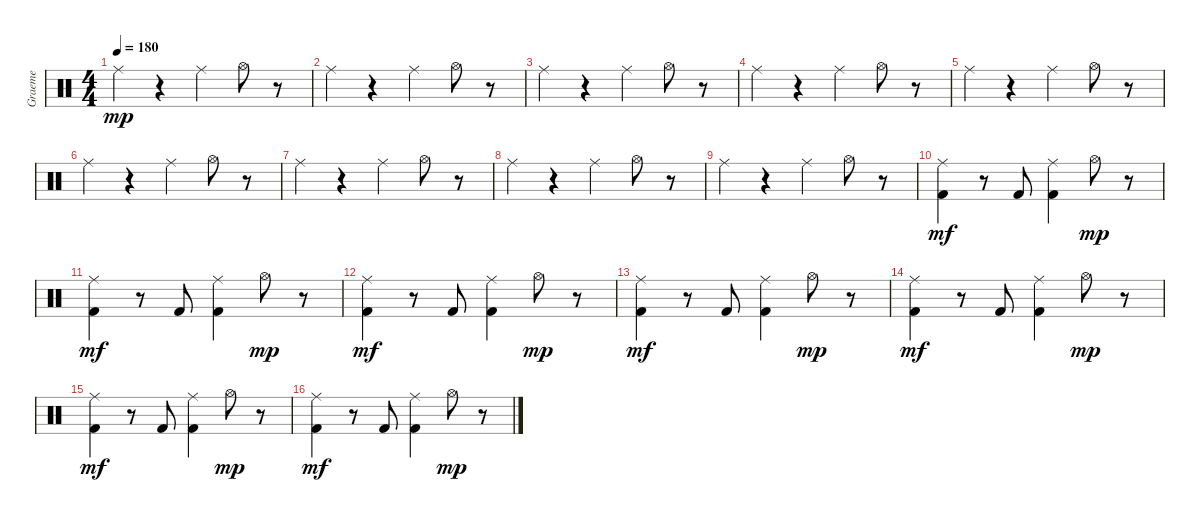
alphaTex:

\track ("Graeme" "Graeme") {instrument percussion}
\staff {score}
\articulation defaults
\ts (4 4)
\tempo 180
\clef neutral
\ks c "Ride (middle)".4{dy mp}
r.4 "Ride (middle)".4 "Hi-Hat (open)".8 r.8 |
"Ride (middle)".4 r.4 "Ride (middle)".4 "Hi-Hat (open)".8 r.8 |
"Ride (middle)".4 r.4 "Ride (middle)".4 "Hi-Hat (open)".8 r.8 |
"Ride (middle)".4 r.4 "Ride (middle)".4 "Hi-Hat (open)".8 r.8 |
"Ride (middle)".4 r.4 "Ride (middle)".4 "Hi-Hat (open)".8 r.8 |
"Ride (middle)".4 r.4 "Ride (middle)".4 "Hi-Hat (open)".8 r.8 |
"Ride (middle)".4 r.4 "Ride (middle)".4 "Hi-Hat (open)".8 r.8 |
"Ride (middle)".4 r.4 "Ride (middle)".4 "Hi-Hat (open)".8 r.8 |
"Ride (middle)".4 r.4 "Ride (middle)".4 "Hi-Hat (open)".8 r.8 |
("Ride (middle)" "Kick (hit) 2").4{dy mf} r.8 "Kick (hit) 2".8 ("Ride (middle)" "Kick (hit) 2").4 "Hi-Hat (open)".8{dy mp} r.8 |
("Ride (middle)" "Kick (hit) 2").4{dy mf} r.8 "Kick (hit) 2".8 ("Ride (middle)" "Kick (hit) 2").4 "Hi-Hat (open)".8{dy mp} r.8 |
("Ride (middle)" "Kick (hit) 2").4{dy mf} r.8 "Kick (hit) 2".8 ("Ride (middle)" "Kick (hit) 2").4 "Hi-Hat (open)".8{dy mp} r.8 |
("Ride (middle)" "Kick (hit) 2").4{dy mf} r.8 "Kick (hit) 2".8 ("Ride (middle)" "Kick (hit) 2").4 "Hi-Hat (open)".8{dy mp} r.8 |
("Ride (middle)" "Kick (hit) 2").4{dy mf} r.8 "Kick (hit) 2".8 ("Ride (middle)" "Kick (hit) 2").4 "Hi-Hat (open)".8{dy mp} r.8 |
("Ride (middle)" "Kick (hit) 2").4{dy mf} r.8 "Kick (hit) 2".8 ("Ride (middle)" "Kick (hit) 2").4 "Hi-Hat (open)".8{dy mp} r.8 |
("Ride (middle)" "Kick (hit) 2").4{dy mf} r.8 "Kick (hit) 2".8 ("Ride (middle)" "Kick (hit) 2").4 "Hi-Hat (open)".8{dy mp} r.8
